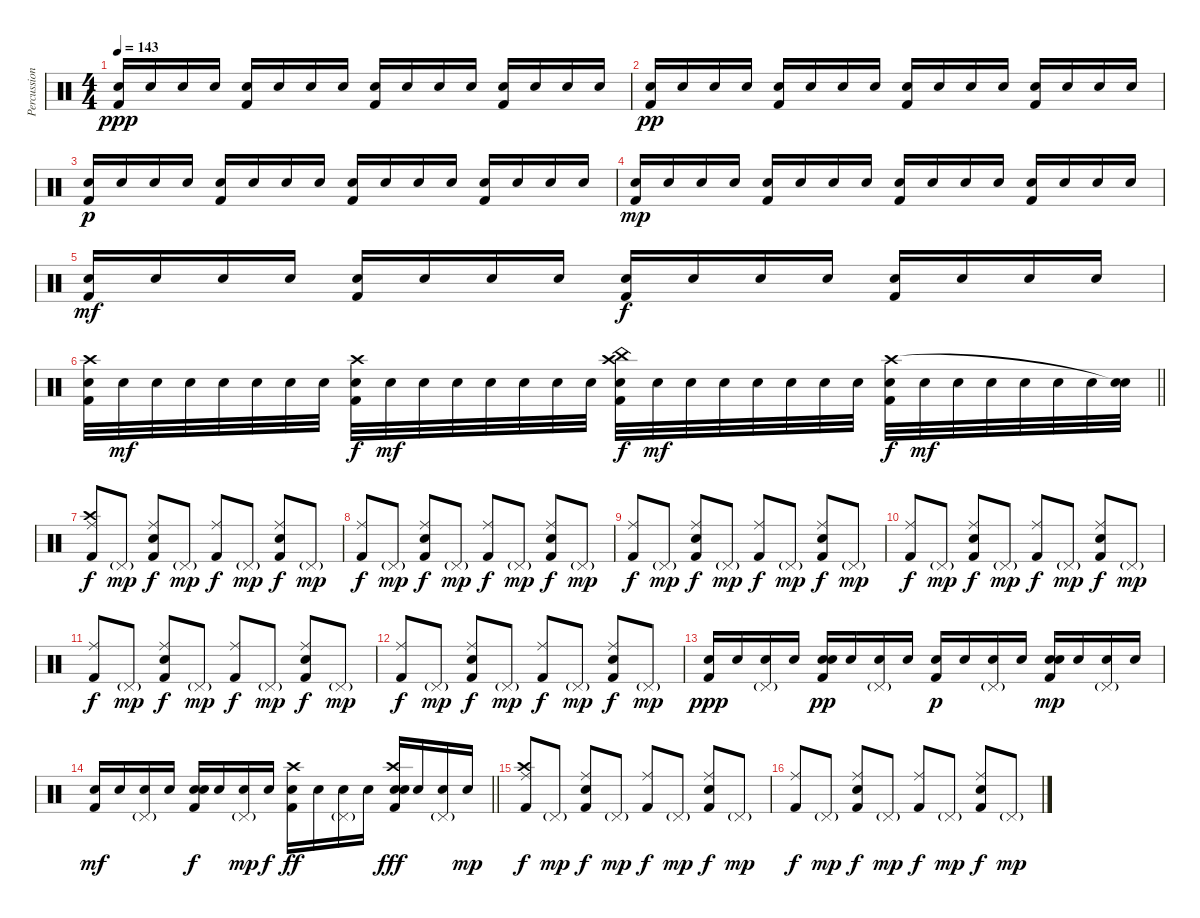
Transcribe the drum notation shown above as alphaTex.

\track ("Percussion" "Percussion") {instrument percussion}
\staff {score}
\articulation defaults
\ts (4 4)
\tempo 143
\clef neutral
\ks c
("Snare (hit) 2" "Kick (hit) 2").16{dy ppp} "Snare (hit) 2".16 "Snare (hit) 2".16 "Snare (hit) 2".16 ("Snare (hit) 2" "Kick (hit) 2").16 "Snare (hit) 2".16 "Snare (hit) 2".16 "Snare (hit) 2".16 ("Snare (hit) 2" "Kick (hit) 2").16 "Snare (hit) 2".16 "Snare (hit) 2".16 "Snare (hit) 2".16 ("Snare (hit) 2" "Kick (hit) 2").16 "Snare (hit) 2".16 "Snare (hit) 2".16 "Snare (hit) 2".16 |
("Snare (hit) 2" "Kick (hit) 2").16{dy pp} "Snare (hit) 2".16 "Snare (hit) 2".16 "Snare (hit) 2".16 ("Snare (hit) 2" "Kick (hit) 2").16 "Snare (hit) 2".16 "Snare (hit) 2".16 "Snare (hit) 2".16 ("Snare (hit) 2" "Kick (hit) 2").16 "Snare (hit) 2".16 "Snare (hit) 2".16 "Snare (hit) 2".16 ("Snare (hit) 2" "Kick (hit) 2").16 "Snare (hit) 2".16 "Snare (hit) 2".16 "Snare (hit) 2".16 |
("Snare (hit) 2" "Kick (hit) 2").16{dy p} "Snare (hit) 2".16 "Snare (hit) 2".16 "Snare (hit) 2".16 ("Snare (hit) 2" "Kick (hit) 2").16 "Snare (hit) 2".16 "Snare (hit) 2".16 "Snare (hit) 2".16 ("Snare (hit) 2" "Kick (hit) 2").16 "Snare (hit) 2".16 "Snare (hit) 2".16 "Snare (hit) 2".16 ("Snare (hit) 2" "Kick (hit) 2").16 "Snare (hit) 2".16 "Snare (hit) 2".16 "Snare (hit) 2".16 |
("Snare (hit) 2" "Kick (hit) 2").16{dy mp} "Snare (hit) 2".16 "Snare (hit) 2".16 "Snare (hit) 2".16 ("Snare (hit) 2" "Kick (hit) 2").16 "Snare (hit) 2".16 "Snare (hit) 2".16 "Snare (hit) 2".16 ("Snare (hit) 2" "Kick (hit) 2").16 "Snare (hit) 2".16 "Snare (hit) 2".16 "Snare (hit) 2".16 ("Snare (hit) 2" "Kick (hit) 2").16 "Snare (hit) 2".16 "Snare (hit) 2".16 "Snare (hit) 2".16 |
("Snare (hit) 2" "Kick (hit) 2").16{dy mf} "Snare (hit) 2".16 "Snare (hit) 2".16 "Snare (hit) 2".16 ("Snare (hit) 2" "Kick (hit) 2").16 "Snare (hit) 2".16 "Snare (hit) 2".16 "Snare (hit) 2".16 ("Snare (hit) 2" "Kick (hit) 2").16{dy f} "Snare (hit) 2".16 "Snare (hit) 2".16 "Snare (hit) 2".16 ("Snare (hit) 2" "Kick (hit) 2").16 "Snare (hit) 2".16 "Snare (hit) 2".16 "Snare (hit) 2".16 |
\barLineRight lightlight
("Snare (hit) 2" "Crash high (hit)" "Kick (hit) 2").32 "Snare (hit) 2".32{dy mf} "Snare (hit) 2".32 "Snare (hit) 2".32 "Snare (hit) 2".32 "Snare (hit) 2".32 "Snare (hit) 2".32 "Snare (hit) 2".32 ("Snare (hit) 2" "Crash high (hit)" "Kick (hit) 2").32{dy f} "Snare (hit) 2".32{dy mf} "Snare (hit) 2".32 "Snare (hit) 2".32 "Snare (hit) 2".32 "Snare (hit) 2".32 "Snare (hit) 2".32 "Snare (hit) 2".32 ("Snare (hit) 2" "Crash high (hit)" "China (hit)" "Kick (hit) 2").32{dy f} "Snare (hit) 2".32{dy mf} "Snare (hit) 2".32 "Snare (hit) 2".32 "Snare (hit) 2".32 "Snare (hit) 2".32 "Snare (hit) 2".32 "Snare (hit) 2".32 ("Snare (hit) 2" "Crash high (hit)" "Kick (hit) 2").32{dy f} "Snare (hit) 2".32{dy mf} "Snare (hit) 2".32 "Snare (hit) 2".32 "Snare (hit) 2".32 "Snare (hit) 2".32 "Snare (hit) 2".32 ("Snare (hit) 2" "Snare (hit)"{t}).32 |
("Crash high (hit)" "Ride (middle)" "Kick (hit) 2").8{dy f} "Pedal Hi-Hat (hit)"{g}.8{dy mp} ("Electric Snare (hit)" "Ride (middle)" "Kick (hit) 2").8{dy f} "Pedal Hi-Hat (hit)"{g}.8{dy mp} ("Ride (middle)" "Kick (hit) 2").8{dy f} "Pedal Hi-Hat (hit)"{g}.8{dy mp} ("Electric Snare (hit)" "Ride (middle)" "Kick (hit) 2").8{dy f} "Pedal Hi-Hat (hit)"{g}.8{dy mp} |
("Ride (middle)" "Kick (hit) 2").8{dy f} "Pedal Hi-Hat (hit)"{g}.8{dy mp} ("Electric Snare (hit)" "Ride (middle)" "Kick (hit) 2").8{dy f} "Pedal Hi-Hat (hit)"{g}.8{dy mp} ("Ride (middle)" "Kick (hit) 2").8{dy f} "Pedal Hi-Hat (hit)"{g}.8{dy mp} ("Electric Snare (hit)" "Ride (middle)" "Kick (hit) 2").8{dy f} "Pedal Hi-Hat (hit)"{g}.8{dy mp} |
("Ride (middle)" "Kick (hit) 2").8{dy f} "Pedal Hi-Hat (hit)"{g}.8{dy mp} ("Electric Snare (hit)" "Ride (middle)" "Kick (hit) 2").8{dy f} "Pedal Hi-Hat (hit)"{g}.8{dy mp} ("Ride (middle)" "Kick (hit) 2").8{dy f} "Pedal Hi-Hat (hit)"{g}.8{dy mp} ("Electric Snare (hit)" "Ride (middle)" "Kick (hit) 2").8{dy f} "Pedal Hi-Hat (hit)"{g}.8{dy mp} |
("Ride (middle)" "Kick (hit) 2").8{dy f} "Pedal Hi-Hat (hit)"{g}.8{dy mp} ("Electric Snare (hit)" "Ride (middle)" "Kick (hit) 2").8{dy f} "Pedal Hi-Hat (hit)"{g}.8{dy mp} ("Ride (middle)" "Kick (hit) 2").8{dy f} "Pedal Hi-Hat (hit)"{g}.8{dy mp} ("Electric Snare (hit)" "Ride (middle)" "Kick (hit) 2").8{dy f} "Pedal Hi-Hat (hit)"{g}.8{dy mp} |
("Ride (middle)" "Kick (hit) 2").8{dy f} "Pedal Hi-Hat (hit)"{g}.8{dy mp} ("Electric Snare (hit)" "Ride (middle)" "Kick (hit) 2").8{dy f} "Pedal Hi-Hat (hit)"{g}.8{dy mp} ("Ride (middle)" "Kick (hit) 2").8{dy f} "Pedal Hi-Hat (hit)"{g}.8{dy mp} ("Electric Snare (hit)" "Ride (middle)" "Kick (hit) 2").8{dy f} "Pedal Hi-Hat (hit)"{g}.8{dy mp} |
("Ride (middle)" "Kick (hit) 2").8{dy f} "Pedal Hi-Hat (hit)"{g}.8{dy mp} ("Electric Snare (hit)" "Ride (middle)" "Kick (hit) 2").8{dy f} "Pedal Hi-Hat (hit)"{g}.8{dy mp} ("Ride (middle)" "Kick (hit) 2").8{dy f} "Pedal Hi-Hat (hit)"{g}.8{dy mp} ("Electric Snare (hit)" "Ride (middle)" "Kick (hit) 2").8{dy f} "Pedal Hi-Hat (hit)"{g}.8{dy mp} |
("Snare (hit) 2" "Kick (hit) 2").16{dy ppp} "Snare (hit) 2".16 ("Pedal Hi-Hat (hit)"{g} "Snare (hit) 2").16 "Snare (hit) 2".16 ("Electric Snare (hit)" "Snare (hit) 2" "Kick (hit) 2").16{dy pp} "Snare (hit) 2".16 ("Pedal Hi-Hat (hit)"{g} "Snare (hit) 2").16 "Snare (hit) 2".16 ("Snare (hit) 2" "Kick (hit) 2").16{dy p} "Snare (hit) 2".16 ("Pedal Hi-Hat (hit)"{g} "Snare (hit) 2").16 "Snare (hit) 2".16 ("Electric Snare (hit)" "Snare (hit) 2" "Kick (hit) 2").16{dy mp} "Snare (hit) 2".16 ("Pedal Hi-Hat (hit)"{g} "Snare (hit) 2").16 "Snare (hit) 2".16 |
\barLineRight lightlight
("Snare (hit) 2" "Kick (hit) 2").16{dy mf} "Snare (hit) 2".16 ("Pedal Hi-Hat (hit)"{g} "Snare (hit) 2").16 "Snare (hit) 2".16 ("Electric Snare (hit)" "Snare (hit) 2" "Kick (hit) 2").16{dy f} "Snare (hit) 2".16 ("Pedal Hi-Hat (hit)"{g} "Snare (hit) 2").16{dy mp} "Snare (hit) 2".16{dy f} ("Crash high (hit)" "Snare (hit) 2" "Kick (hit) 2").16{dy ff} "Snare (hit) 2".16 ("Pedal Hi-Hat (hit)"{g} "Snare (hit) 2").16 "Snare (hit) 2".16 ("Electric Snare (hit)" "Crash high (hit)" "Snare (hit) 2" "Kick (hit) 2").16{dy fff} "Snare (hit) 2".16 ("Pedal Hi-Hat (hit)"{g} "Snare (hit) 2").16 "Snare (hit) 2".16{dy mp} |
("Crash high (hit)" "Ride (middle)" "Kick (hit) 2").8{dy f} "Pedal Hi-Hat (hit)"{g}.8{dy mp} ("Electric Snare (hit)" "Ride (middle)" "Kick (hit) 2").8{dy f} "Pedal Hi-Hat (hit)"{g}.8{dy mp} ("Ride (middle)" "Kick (hit) 2").8{dy f} "Pedal Hi-Hat (hit)"{g}.8{dy mp} ("Electric Snare (hit)" "Ride (middle)" "Kick (hit) 2").8{dy f} "Pedal Hi-Hat (hit)"{g}.8{dy mp} |
("Ride (middle)" "Kick (hit) 2").8{dy f} "Pedal Hi-Hat (hit)"{g}.8{dy mp} ("Electric Snare (hit)" "Ride (middle)" "Kick (hit) 2").8{dy f} "Pedal Hi-Hat (hit)"{g}.8{dy mp} ("Ride (middle)" "Kick (hit) 2").8{dy f} "Pedal Hi-Hat (hit)"{g}.8{dy mp} ("Electric Snare (hit)" "Ride (middle)" "Kick (hit) 2").8{dy f} "Pedal Hi-Hat (hit)"{g}.8{dy mp}
